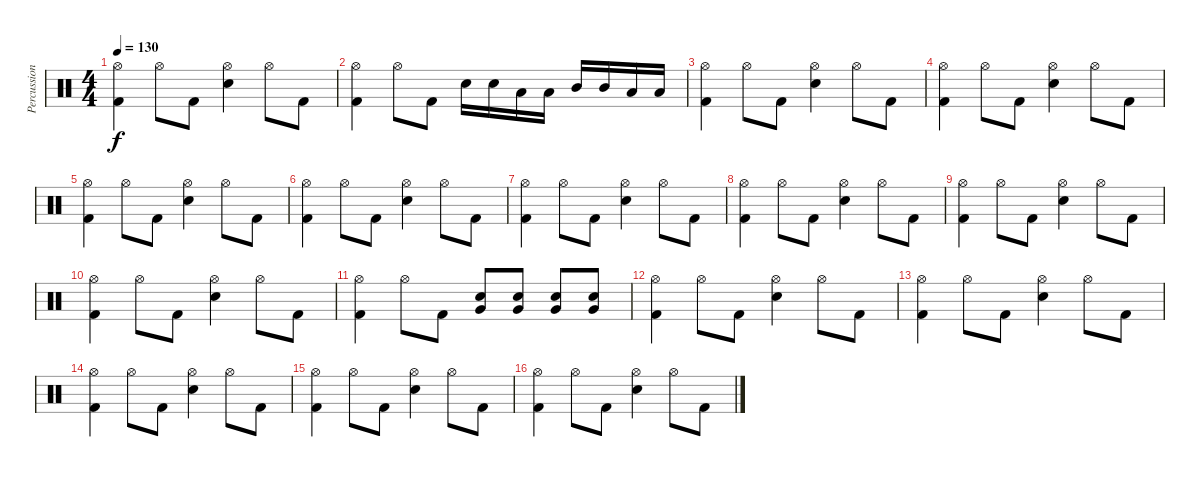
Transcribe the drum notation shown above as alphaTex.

\track ("Percussion" "Percussion") {instrument percussion}
\staff {score}
\articulation defaults
\ts (4 4)
\tempo 130
\clef neutral
\ks c
("Hi-Hat (open)" "Kick (hit) 2").4{dy f} "Hi-Hat (open)".8 "Kick (hit) 2".8 ("Hi-Hat (open)" "Electric Snare (hit)").4 "Hi-Hat (open)".8 "Kick (hit) 2".8 |
("Hi-Hat (open)" "Kick (hit) 2").4 "Hi-Hat (open)".8 "Kick (hit) 2".8 "Electric Snare (hit)".16 "Electric Snare (hit)".16 "Low Tom (hit)".16 "Low Tom (hit)".16 "Mid Tom (hit)".16 "Mid Tom (hit)".16 "Low Tom (hit)".16 "Low Tom (hit)".16 |
("Hi-Hat (open)" "Kick (hit) 2").4 "Hi-Hat (open)".8 "Kick (hit) 2".8 ("Hi-Hat (open)" "Electric Snare (hit)").4 "Hi-Hat (open)".8 "Kick (hit) 2".8 |
("Hi-Hat (open)" "Kick (hit) 2").4 "Hi-Hat (open)".8 "Kick (hit) 2".8 ("Hi-Hat (open)" "Electric Snare (hit)").4 "Hi-Hat (open)".8 "Kick (hit) 2".8 |
("Hi-Hat (open)" "Kick (hit) 2").4 "Hi-Hat (open)".8 "Kick (hit) 2".8 ("Hi-Hat (open)" "Electric Snare (hit)").4 "Hi-Hat (open)".8 "Kick (hit) 2".8 |
("Hi-Hat (open)" "Kick (hit) 2").4 "Hi-Hat (open)".8 "Kick (hit) 2".8 ("Hi-Hat (open)" "Electric Snare (hit)").4 "Hi-Hat (open)".8 "Kick (hit) 2".8 |
("Hi-Hat (open)" "Kick (hit) 2").4 "Hi-Hat (open)".8 "Kick (hit) 2".8 ("Hi-Hat (open)" "Electric Snare (hit)").4 "Hi-Hat (open)".8 "Kick (hit) 2".8 |
("Hi-Hat (open)" "Kick (hit) 2").4 "Hi-Hat (open)".8 "Kick (hit) 2".8 ("Hi-Hat (open)" "Electric Snare (hit)").4 "Hi-Hat (open)".8 "Kick (hit) 2".8 |
("Hi-Hat (open)" "Kick (hit) 2").4 "Hi-Hat (open)".8 "Kick (hit) 2".8 ("Hi-Hat (open)" "Electric Snare (hit)").4 "Hi-Hat (open)".8 "Kick (hit) 2".8 |
("Hi-Hat (open)" "Kick (hit) 2").4 "Hi-Hat (open)".8 "Kick (hit) 2".8 ("Hi-Hat (open)" "Electric Snare (hit)").4 "Hi-Hat (open)".8 "Kick (hit) 2".8 |
("Hi-Hat (open)" "Kick (hit) 2").4 "Hi-Hat (open)".8 "Kick (hit) 2".8 ("Very Low Tom (hit)" "Electric Snare (hit)").8 ("Very Low Tom (hit)" "Electric Snare (hit)").8 ("Very Low Tom (hit)" "Electric Snare (hit)").8 ("Very Low Tom (hit)" "Electric Snare (hit)").8 |
("Hi-Hat (open)" "Kick (hit) 2").4 "Hi-Hat (open)".8 "Kick (hit) 2".8 ("Hi-Hat (open)" "Electric Snare (hit)").4 "Hi-Hat (open)".8 "Kick (hit) 2".8 |
("Hi-Hat (open)" "Kick (hit) 2").4 "Hi-Hat (open)".8 "Kick (hit) 2".8 ("Hi-Hat (open)" "Electric Snare (hit)").4 "Hi-Hat (open)".8 "Kick (hit) 2".8 |
("Hi-Hat (open)" "Kick (hit) 2").4 "Hi-Hat (open)".8 "Kick (hit) 2".8 ("Hi-Hat (open)" "Electric Snare (hit)").4 "Hi-Hat (open)".8 "Kick (hit) 2".8 |
("Hi-Hat (open)" "Kick (hit) 2").4 "Hi-Hat (open)".8 "Kick (hit) 2".8 ("Hi-Hat (open)" "Electric Snare (hit)").4 "Hi-Hat (open)".8 "Kick (hit) 2".8 |
("Hi-Hat (open)" "Kick (hit) 2").4 "Hi-Hat (open)".8 "Kick (hit) 2".8 ("Hi-Hat (open)" "Electric Snare (hit)").4 "Hi-Hat (open)".8 "Kick (hit) 2".8
